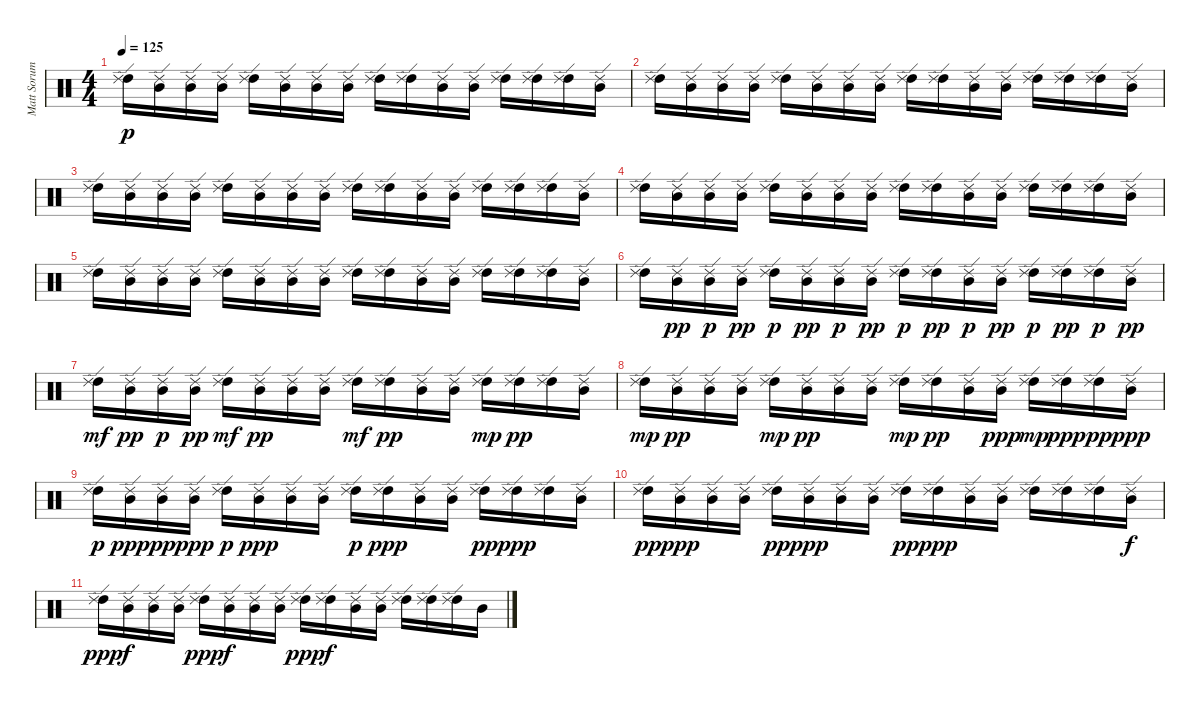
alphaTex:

\track ("Matt Sorum" "Matt Sorum") {instrument percussion}
\staff {score}
\articulation defaults
\ts (4 4)
\tempo 125
\clef neutral
\ks c
("High Tom (hit)" "Ride (edge) 2").16{dy p} ("Mid Tom (hit)" "Ride (edge) 2").16 ("Mid Tom (hit)" "Ride (edge) 2").16 ("Mid Tom (hit)" "Ride (edge) 2").16 ("High Tom (hit)" "Ride (edge) 2").16 ("Mid Tom (hit)" "Ride (edge) 2").16 ("Mid Tom (hit)" "Ride (edge) 2").16 ("Mid Tom (hit)" "Ride (edge) 2").16 ("High Tom (hit)" "Ride (edge) 2").16 ("High Tom (hit)" "Ride (edge) 2").16 ("Mid Tom (hit)" "Ride (edge) 2").16 ("Mid Tom (hit)" "Ride (edge) 2").16 ("High Tom (hit)" "Ride (edge) 2").16 ("High Tom (hit)" "Ride (edge) 2").16 ("High Tom (hit)" "Ride (edge) 2").16 ("Mid Tom (hit)" "Ride (edge) 2").16 |
("High Tom (hit)" "Ride (edge) 2").16 ("Mid Tom (hit)" "Ride (edge) 2").16 ("Mid Tom (hit)" "Ride (edge) 2").16 ("Mid Tom (hit)" "Ride (edge) 2").16 ("High Tom (hit)" "Ride (edge) 2").16 ("Mid Tom (hit)" "Ride (edge) 2").16 ("Mid Tom (hit)" "Ride (edge) 2").16 ("Mid Tom (hit)" "Ride (edge) 2").16 ("High Tom (hit)" "Ride (edge) 2").16 ("High Tom (hit)" "Ride (edge) 2").16 ("Mid Tom (hit)" "Ride (edge) 2").16 ("Mid Tom (hit)" "Ride (edge) 2").16 ("High Tom (hit)" "Ride (edge) 2").16 ("High Tom (hit)" "Ride (edge) 2").16 ("High Tom (hit)" "Ride (edge) 2").16 ("Mid Tom (hit)" "Ride (edge) 2").16 |
("High Tom (hit)" "Ride (edge) 2").16 ("Mid Tom (hit)" "Ride (edge) 2").16 ("Mid Tom (hit)" "Ride (edge) 2").16 ("Mid Tom (hit)" "Ride (edge) 2").16 ("High Tom (hit)" "Ride (edge) 2").16 ("Mid Tom (hit)" "Ride (edge) 2").16 ("Mid Tom (hit)" "Ride (edge) 2").16 ("Mid Tom (hit)" "Ride (edge) 2").16 ("High Tom (hit)" "Ride (edge) 2").16 ("High Tom (hit)" "Ride (edge) 2").16 ("Mid Tom (hit)" "Ride (edge) 2").16 ("Mid Tom (hit)" "Ride (edge) 2").16 ("High Tom (hit)" "Ride (edge) 2").16 ("High Tom (hit)" "Ride (edge) 2").16 ("High Tom (hit)" "Ride (edge) 2").16 ("Mid Tom (hit)" "Ride (edge) 2").16 |
("High Tom (hit)" "Ride (edge) 2").16 ("Mid Tom (hit)" "Ride (edge) 2").16 ("Mid Tom (hit)" "Ride (edge) 2").16 ("Mid Tom (hit)" "Ride (edge) 2").16 ("High Tom (hit)" "Ride (edge) 2").16 ("Mid Tom (hit)" "Ride (edge) 2").16 ("Mid Tom (hit)" "Ride (edge) 2").16 ("Mid Tom (hit)" "Ride (edge) 2").16 ("High Tom (hit)" "Ride (edge) 2").16 ("High Tom (hit)" "Ride (edge) 2").16 ("Mid Tom (hit)" "Ride (edge) 2").16 ("Mid Tom (hit)" "Ride (edge) 2").16 ("High Tom (hit)" "Ride (edge) 2").16 ("High Tom (hit)" "Ride (edge) 2").16 ("High Tom (hit)" "Ride (edge) 2").16 ("Mid Tom (hit)" "Ride (edge) 2").16 |
("High Tom (hit)" "Ride (edge) 2").16 ("Mid Tom (hit)" "Ride (edge) 2").16 ("Mid Tom (hit)" "Ride (edge) 2").16 ("Mid Tom (hit)" "Ride (edge) 2").16 ("High Tom (hit)" "Ride (edge) 2").16 ("Mid Tom (hit)" "Ride (edge) 2").16 ("Mid Tom (hit)" "Ride (edge) 2").16 ("Mid Tom (hit)" "Ride (edge) 2").16 ("High Tom (hit)" "Ride (edge) 2").16 ("High Tom (hit)" "Ride (edge) 2").16 ("Mid Tom (hit)" "Ride (edge) 2").16 ("Mid Tom (hit)" "Ride (edge) 2").16 ("High Tom (hit)" "Ride (edge) 2").16 ("High Tom (hit)" "Ride (edge) 2").16 ("High Tom (hit)" "Ride (edge) 2").16 ("Mid Tom (hit)" "Ride (edge) 2").16 |
("High Tom (hit)" "Ride (edge) 2").16 ("Mid Tom (hit)" "Ride (edge) 2").16{dy pp} ("Mid Tom (hit)" "Ride (edge) 2").16{dy p} ("Mid Tom (hit)" "Ride (edge) 2").16{dy pp} ("High Tom (hit)" "Ride (edge) 2").16{dy p} ("Mid Tom (hit)" "Ride (edge) 2").16{dy pp} ("Mid Tom (hit)" "Ride (edge) 2").16{dy p} ("Mid Tom (hit)" "Ride (edge) 2").16{dy pp} ("High Tom (hit)" "Ride (edge) 2").16{dy p} ("High Tom (hit)" "Ride (edge) 2").16{dy pp} ("Mid Tom (hit)" "Ride (edge) 2").16{dy p} ("Mid Tom (hit)" "Ride (edge) 2").16{dy pp} ("High Tom (hit)" "Ride (edge) 2").16{dy p} ("High Tom (hit)" "Ride (edge) 2").16{dy pp} ("High Tom (hit)" "Ride (edge) 2").16{dy p} ("Mid Tom (hit)" "Ride (edge) 2").16{dy pp} |
("High Tom (hit)" "Ride (edge) 2").16{dy mf} ("Mid Tom (hit)" "Ride (edge) 2").16{dy pp} ("Mid Tom (hit)" "Ride (edge) 2").16{dy p} ("Mid Tom (hit)" "Ride (edge) 2").16{dy pp} ("High Tom (hit)" "Ride (edge) 2").16{dy mf} ("Mid Tom (hit)" "Ride (edge) 2").16{dy pp} ("Mid Tom (hit)" "Ride (edge) 2").16 ("Mid Tom (hit)" "Ride (edge) 2").16 ("High Tom (hit)" "Ride (edge) 2").16{dy mf} ("High Tom (hit)" "Ride (edge) 2").16{dy pp} ("Mid Tom (hit)" "Ride (edge) 2").16 ("Mid Tom (hit)" "Ride (edge) 2").16 ("High Tom (hit)" "Ride (edge) 2").16{dy mp} ("High Tom (hit)" "Ride (edge) 2").16{dy pp} ("High Tom (hit)" "Ride (edge) 2").16 ("Mid Tom (hit)" "Ride (edge) 2").16 |
("High Tom (hit)" "Ride (edge) 2").16{dy mp} ("Mid Tom (hit)" "Ride (edge) 2").16{dy pp} ("Mid Tom (hit)" "Ride (edge) 2").16 ("Mid Tom (hit)" "Ride (edge) 2").16 ("High Tom (hit)" "Ride (edge) 2").16{dy mp} ("Mid Tom (hit)" "Ride (edge) 2").16{dy pp} ("Mid Tom (hit)" "Ride (edge) 2").16 ("Mid Tom (hit)" "Ride (edge) 2").16 ("High Tom (hit)" "Ride (edge) 2").16{dy mp} ("High Tom (hit)" "Ride (edge) 2").16{dy pp} ("Mid Tom (hit)" "Ride (edge) 2").16 ("Mid Tom (hit)" "Ride (edge) 2").16{dy ppp} ("High Tom (hit)" "Ride (edge) 2").16{dy mp} ("High Tom (hit)" "Ride (edge) 2").16{dy ppp} ("High Tom (hit)" "Ride (edge) 2").16{dy pp} ("Mid Tom (hit)" "Ride (edge) 2").16{dy ppp} |
("High Tom (hit)" "Ride (edge) 2").16{dy p} ("Mid Tom (hit)" "Ride (edge) 2").16{dy ppp} ("Mid Tom (hit)" "Ride (edge) 2").16{dy pp} ("Mid Tom (hit)" "Ride (edge) 2").16{dy ppp} ("High Tom (hit)" "Ride (edge) 2").16{dy p} ("Mid Tom (hit)" "Ride (edge) 2").16{dy ppp} ("Mid Tom (hit)" "Ride (edge) 2").16 ("Mid Tom (hit)" "Ride (edge) 2").16 ("High Tom (hit)" "Ride (edge) 2").16{dy p} ("High Tom (hit)" "Ride (edge) 2").16{dy ppp} ("Mid Tom (hit)" "Ride (edge) 2").16 ("Mid Tom (hit)" "Ride (edge) 2").16 ("High Tom (hit)" "Ride (edge) 2").16{dy pp} ("High Tom (hit)" "Ride (edge) 2").16{dy ppp} ("High Tom (hit)" "Ride (edge) 2").16 ("Mid Tom (hit)" "Ride (edge) 2").16 |
("High Tom (hit)" "Ride (edge) 2").16{dy pp} ("Mid Tom (hit)" "Ride (edge) 2").16{dy ppp} ("Mid Tom (hit)" "Ride (edge) 2").16 ("Mid Tom (hit)" "Ride (edge) 2").16 ("High Tom (hit)" "Ride (edge) 2").16{dy pp} ("Mid Tom (hit)" "Ride (edge) 2").16{dy ppp} ("Mid Tom (hit)" "Ride (edge) 2").16 ("Mid Tom (hit)" "Ride (edge) 2").16 ("High Tom (hit)" "Ride (edge) 2").16{dy pp} ("High Tom (hit)" "Ride (edge) 2").16{dy ppp} ("Mid Tom (hit)" "Ride (edge) 2").16 ("Mid Tom (hit)" "Ride (edge) 2").16 ("High Tom (hit)" "Ride (edge) 2").16 ("High Tom (hit)" "Ride (edge) 2").16 ("High Tom (hit)" "Ride (edge) 2").16 ("Mid Tom (hit)" "Ride (edge) 2").16{dy f} |
("High Tom (hit)" "Ride (edge) 2").16{dy ppp} ("Mid Tom (hit)" "Ride (edge) 2").16{dy f} ("Mid Tom (hit)" "Ride (edge) 2").16 ("Mid Tom (hit)" "Ride (edge) 2").16 ("High Tom (hit)" "Ride (edge) 2").16{dy ppp} ("Mid Tom (hit)" "Ride (edge) 2").16{dy f} ("Mid Tom (hit)" "Ride (edge) 2").16 ("Mid Tom (hit)" "Ride (edge) 2").16 ("High Tom (hit)" "Ride (edge) 2").16{dy ppp} ("High Tom (hit)" "Ride (edge) 2").16{dy f} ("Mid Tom (hit)" "Ride (edge) 2").16 ("Mid Tom (hit)" "Ride (edge) 2").16 ("High Tom (hit)" "Ride (edge) 2").16 ("High Tom (hit)" "Ride (edge) 2").16 ("High Tom (hit)" "Ride (edge) 2").16 "Mid Tom (hit)".16
